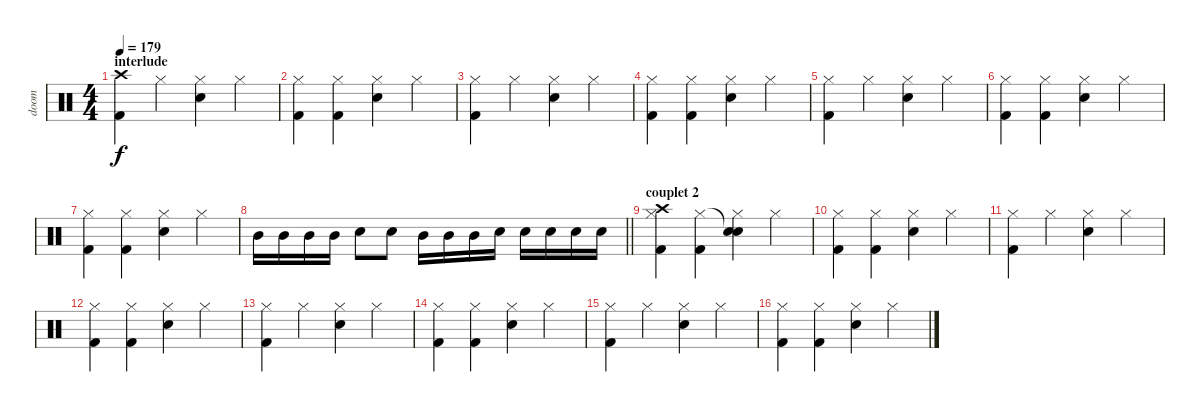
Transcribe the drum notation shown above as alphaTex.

\track ("doom" "doom") {instrument percussion}
\staff {score}
\articulation defaults
\ts (4 4)
\section ("" "interlude")
\tempo 179
\clef neutral
\ks c
("Crash high (hit)" "Kick (hit) 2").4{dy f} "Hi-Hat (closed)".4 ("Hi-Hat (closed)" "Snare (hit) 2").4 "Hi-Hat (closed)".4 |
("Hi-Hat (closed)" "Kick (hit) 2").4 ("Hi-Hat (closed)" "Kick (hit) 2").4 ("Hi-Hat (closed)" "Snare (hit) 2").4 "Hi-Hat (closed)".4 |
("Hi-Hat (closed)" "Kick (hit) 2").4 "Hi-Hat (closed)".4 ("Hi-Hat (closed)" "Snare (hit) 2").4 "Hi-Hat (closed)".4 |
("Hi-Hat (closed)" "Kick (hit) 2").4 ("Hi-Hat (closed)" "Kick (hit) 2").4 ("Hi-Hat (closed)" "Snare (hit) 2").4 "Hi-Hat (closed)".4 |
("Hi-Hat (closed)" "Kick (hit) 2").4 "Hi-Hat (closed)".4 ("Hi-Hat (closed)" "Snare (hit) 2").4 "Hi-Hat (closed)".4 |
("Hi-Hat (closed)" "Kick (hit) 2").4 ("Hi-Hat (closed)" "Kick (hit) 2").4 ("Hi-Hat (closed)" "Snare (hit) 2").4 "Hi-Hat (closed)".4 |
("Hi-Hat (closed)" "Kick (hit) 2").4 ("Hi-Hat (closed)" "Kick (hit) 2").4 ("Hi-Hat (closed)" "Snare (hit) 2").4 "Hi-Hat (closed)".4 |
\barLineRight lightlight "Mid Tom (hit)".16 "Mid Tom (hit)".16 "Mid Tom (hit)".16 "Mid Tom (hit)".16 "Snare (hit) 2".8 "Snare (hit) 2".8 "Mid Tom (hit)".16 "Mid Tom (hit)".16 "Mid Tom (hit)".16 "Snare (hit) 2".16 "Snare (hit) 2".16 "Snare (hit) 2".16 "Snare (hit) 2".16 "Snare (hit) 2".16
|
\section ("" "couplet 2")
("Crash high (hit)" "Hi-Hat (closed)" "Kick (hit) 2").4 ("Hi-Hat (closed)" "Kick (hit) 2").4 ("Snare (hit)"{t} "Hi-Hat (closed)" "Snare (hit) 2").4 "Hi-Hat (closed)".4 |
("Hi-Hat (closed)" "Kick (hit) 2").4 ("Hi-Hat (closed)" "Kick (hit) 2").4 ("Hi-Hat (closed)" "Snare (hit) 2").4 "Hi-Hat (closed)".4 |
("Hi-Hat (closed)" "Kick (hit) 2").4 "Hi-Hat (closed)".4 ("Hi-Hat (closed)" "Snare (hit) 2").4 "Hi-Hat (closed)".4 |
("Hi-Hat (closed)" "Kick (hit) 2").4 ("Hi-Hat (closed)" "Kick (hit) 2").4 ("Hi-Hat (closed)" "Snare (hit) 2").4 "Hi-Hat (closed)".4 |
("Hi-Hat (closed)" "Kick (hit) 2").4 "Hi-Hat (closed)".4 ("Hi-Hat (closed)" "Snare (hit) 2").4 "Hi-Hat (closed)".4 |
("Hi-Hat (closed)" "Kick (hit) 2").4 ("Hi-Hat (closed)" "Kick (hit) 2").4 ("Hi-Hat (closed)" "Snare (hit) 2").4 "Hi-Hat (closed)".4 |
("Hi-Hat (closed)" "Kick (hit) 2").4 "Hi-Hat (closed)".4 ("Hi-Hat (closed)" "Snare (hit) 2").4 "Hi-Hat (closed)".4 |
("Hi-Hat (closed)" "Kick (hit) 2").4 ("Hi-Hat (closed)" "Kick (hit) 2").4 ("Hi-Hat (closed)" "Snare (hit) 2").4 "Hi-Hat (closed)".4
